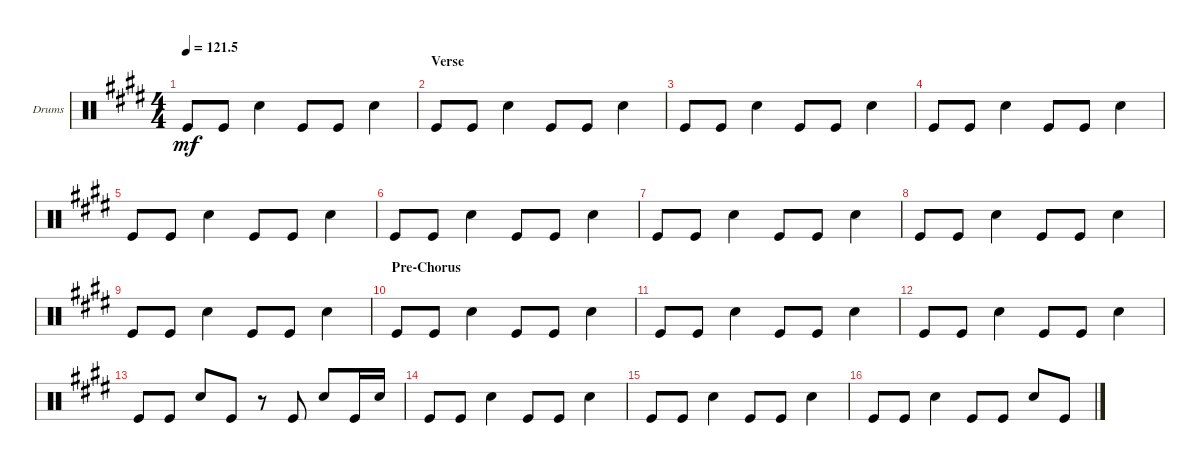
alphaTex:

\defaultSystemsLayout 4
\bracketExtendMode groupsimilarinstruments
\firstSystemTrackNameOrientation horizontal
\otherSystemsTrackNameOrientation horizontal
\track ("Drumkit" "Drums") {solo instrument percussion}
\staff {score}
\articulation defaults
\ts (4 4)
\tempo
121.5
\accidentals auto
\clef neutral
\ottava regular
\simile none
\ks e "Kick (hit)".8{dy mf} "Kick (hit)".8 "Snare (hit) 2".4 "Kick (hit)".8 "Kick (hit)".8 "Snare (hit) 2".4
|
\section ("" "Verse")
"Kick (hit)".8 "Kick (hit)".8 "Snare (hit) 2".4 "Kick (hit)".8 "Kick (hit)".8 "Snare (hit) 2".4 |
"Kick (hit)".8 "Kick (hit)".8 "Snare (hit) 2".4 "Kick (hit)".8 "Kick (hit)".8 "Snare (hit) 2".4 |
"Kick (hit)".8 "Kick (hit)".8 "Snare (hit) 2".4 "Kick (hit)".8 "Kick (hit)".8 "Snare (hit) 2".4 |
"Kick (hit)".8 "Kick (hit)".8 "Snare (hit) 2".4 "Kick (hit)".8 "Kick (hit)".8 "Snare (hit) 2".4 |
"Kick (hit)".8 "Kick (hit)".8 "Snare (hit) 2".4 "Kick (hit)".8 "Kick (hit)".8 "Snare (hit) 2".4 |
"Kick (hit)".8 "Kick (hit)".8 "Snare (hit) 2".4 "Kick (hit)".8 "Kick (hit)".8 "Snare (hit) 2".4 |
"Kick (hit)".8 "Kick (hit)".8 "Snare (hit) 2".4 "Kick (hit)".8 "Kick (hit)".8 "Snare (hit) 2".4 |
"Kick (hit)".8 "Kick (hit)".8 "Snare (hit) 2".4 "Kick (hit)".8 "Kick (hit)".8 "Snare (hit) 2".4 |
\section ("" "Pre-Chorus")
"Kick (hit)".8 "Kick (hit)".8 "Snare (hit) 2".4 "Kick (hit)".8 "Kick (hit)".8 "Snare (hit) 2".4 |
"Kick (hit)".8 "Kick (hit)".8 "Snare (hit) 2".4 "Kick (hit)".8 "Kick (hit)".8 "Snare (hit) 2".4 |
"Kick (hit)".8 "Kick (hit)".8 "Snare (hit) 2".4 "Kick (hit)".8 "Kick (hit)".8 "Snare (hit) 2".4 |
"Kick (hit)".8 "Kick (hit)".8 "Snare (hit) 2".8 "Kick (hit)".8 r.8 "Kick (hit)".8 "Snare (hit) 2".8 "Kick (hit)".16 "Snare (hit) 2".16 |
"Kick (hit)".8 "Kick (hit)".8 "Snare (hit) 2".4 "Kick (hit)".8 "Kick (hit)".8 "Snare (hit) 2".4 |
"Kick (hit)".8 "Kick (hit)".8 "Snare (hit) 2".4 "Kick (hit)".8 "Kick (hit)".8 "Snare (hit) 2".4 |
"Kick (hit)".8 "Kick (hit)".8 "Snare (hit) 2".4 "Kick (hit)".8 "Kick (hit)".8 "Snare (hit) 2".8 "Kick (hit)".8
